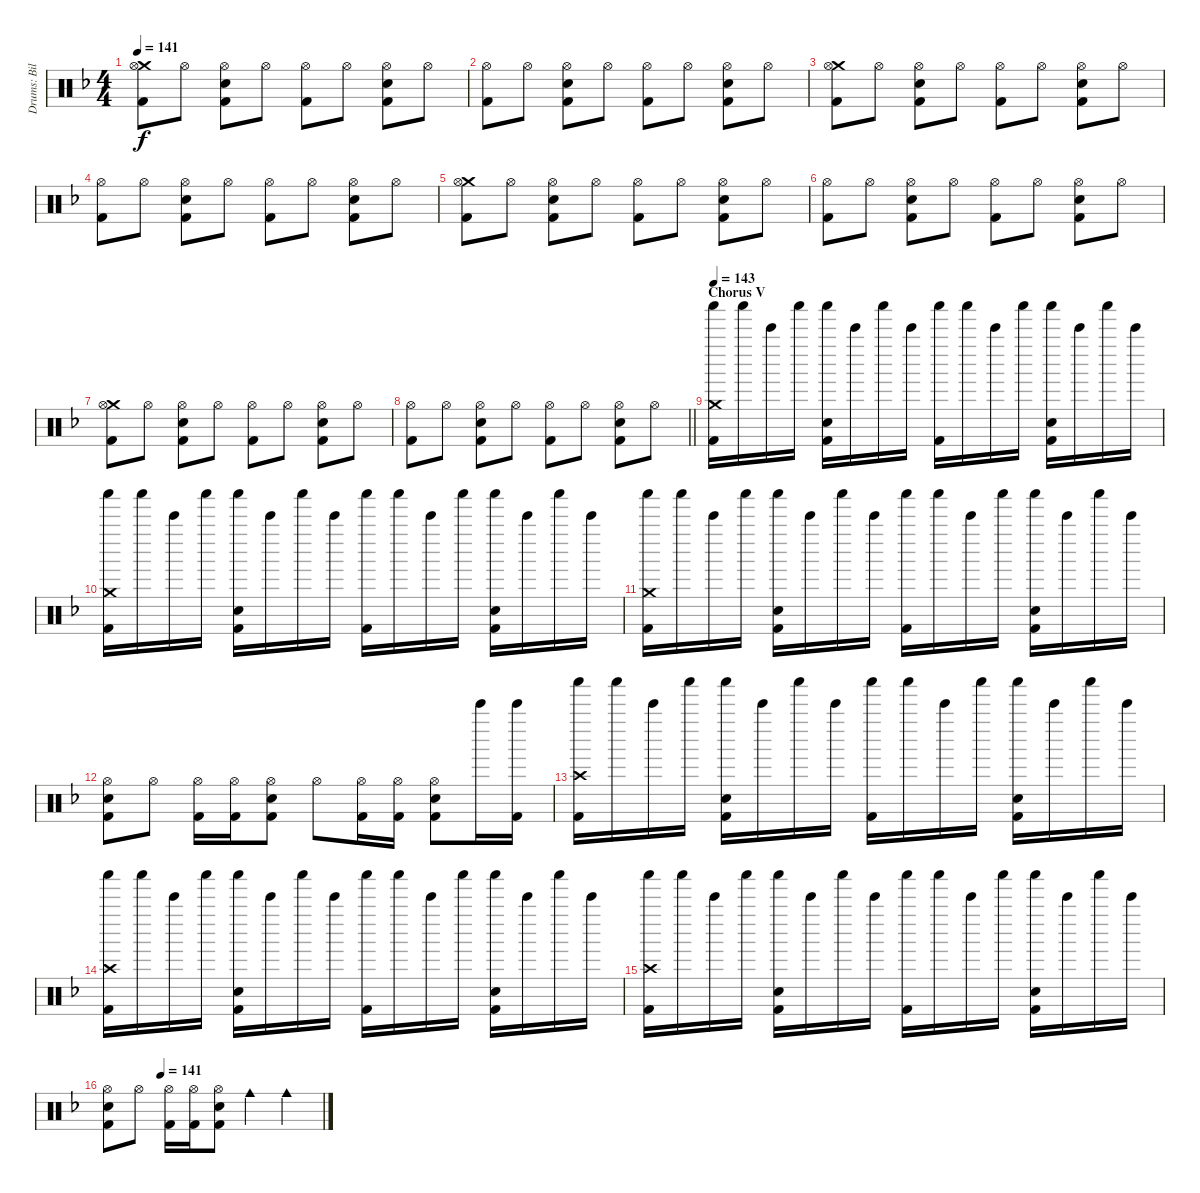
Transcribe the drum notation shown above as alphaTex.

\track ("Drums: Bill" "Drums: Bil") {instrument percussion}
\staff {score}
\articulation defaults
\ts (4 4)
\tempo 141
\clef neutral
\ks f
("Crash medium (hit)" "Hi-Hat (open)" "Kick (hit) 2").8{dy f} "Hi-Hat (open)".8 ("Hi-Hat (open)" "Snare (hit) 2" "Kick (hit) 2").8 "Hi-Hat (open)".8 ("Hi-Hat (open)" "Kick (hit) 2").8 "Hi-Hat (open)".8 ("Hi-Hat (open)" "Snare (hit) 2" "Kick (hit) 2").8 "Hi-Hat (open)".8 |
("Hi-Hat (open)" "Kick (hit) 2").8 "Hi-Hat (open)".8 ("Hi-Hat (open)" "Snare (hit) 2" "Kick (hit) 2").8 "Hi-Hat (open)".8 ("Hi-Hat (open)" "Kick (hit) 2").8 "Hi-Hat (open)".8 ("Hi-Hat (open)" "Snare (hit) 2" "Kick (hit) 2").8 "Hi-Hat (open)".8 |
("Crash medium (hit)" "Hi-Hat (open)" "Kick (hit) 2").8 "Hi-Hat (open)".8 ("Hi-Hat (open)" "Snare (hit) 2" "Kick (hit) 2").8 "Hi-Hat (open)".8 ("Hi-Hat (open)" "Kick (hit) 2").8 "Hi-Hat (open)".8 ("Hi-Hat (open)" "Snare (hit) 2" "Kick (hit) 2").8 "Hi-Hat (open)".8 |
("Hi-Hat (open)" "Kick (hit) 2").8 "Hi-Hat (open)".8 ("Hi-Hat (open)" "Snare (hit) 2" "Kick (hit) 2").8 "Hi-Hat (open)".8 ("Hi-Hat (open)" "Kick (hit) 2").8 "Hi-Hat (open)".8 ("Hi-Hat (open)" "Snare (hit) 2" "Kick (hit) 2").8 "Hi-Hat (open)".8 |
("Crash medium (hit)" "Hi-Hat (open)" "Kick (hit) 2").8 "Hi-Hat (open)".8 ("Hi-Hat (open)" "Snare (hit) 2" "Kick (hit) 2").8 "Hi-Hat (open)".8 ("Hi-Hat (open)" "Kick (hit) 2").8 "Hi-Hat (open)".8 ("Hi-Hat (open)" "Snare (hit) 2" "Kick (hit) 2").8 "Hi-Hat (open)".8 |
("Hi-Hat (open)" "Kick (hit) 2").8 "Hi-Hat (open)".8 ("Hi-Hat (open)" "Snare (hit) 2" "Kick (hit) 2").8 "Hi-Hat (open)".8 ("Hi-Hat (open)" "Kick (hit) 2").8 "Hi-Hat (open)".8 ("Hi-Hat (open)" "Snare (hit) 2" "Kick (hit) 2").8 "Hi-Hat (open)".8 |
("Crash medium (hit)" "Hi-Hat (open)" "Kick (hit) 2").8 "Hi-Hat (open)".8 ("Hi-Hat (open)" "Snare (hit) 2" "Kick (hit) 2").8 "Hi-Hat (open)".8 ("Hi-Hat (open)" "Kick (hit) 2").8 "Hi-Hat (open)".8 ("Hi-Hat (open)" "Snare (hit) 2" "Kick (hit) 2").8 "Hi-Hat (open)".8 |
\barLineRight lightlight
("Hi-Hat (open)" "Kick (hit) 2").8 "Hi-Hat (open)".8 ("Hi-Hat (open)" "Snare (hit) 2" "Kick (hit) 2").8 "Hi-Hat (open)".8 ("Hi-Hat (open)" "Kick (hit) 2").8 "Hi-Hat (open)".8 ("Hi-Hat (open)" "Snare (hit) 2" "Kick (hit) 2").8 "Hi-Hat (open)".8 |
\section ("" "Chorus V")
\tempo 143
("Crash medium (hit)" "Shaker (hit)" "Kick (hit) 2").16 "Shaker (hit)".16 "Bell Tree (hit)".16 "Shaker (hit)".16 ("Shaker (hit)" "Snare (hit) 2" "Kick (hit) 2").16 "Bell Tree (hit)".16 "Shaker (hit)".16 "Bell Tree (hit)".16 ("Shaker (hit)" "Kick (hit) 2").16 "Shaker (hit)".16 "Bell Tree (hit)".16 "Shaker (hit)".16 ("Shaker (hit)" "Snare (hit) 2" "Kick (hit) 2").16 "Bell Tree (hit)".16 "Shaker (hit)".16 "Bell Tree (hit)".16 |
("Crash medium (hit)" "Shaker (hit)" "Kick (hit) 2").16 "Shaker (hit)".16 "Bell Tree (hit)".16 "Shaker (hit)".16 ("Shaker (hit)" "Snare (hit) 2" "Kick (hit) 2").16 "Bell Tree (hit)".16 "Shaker (hit)".16 "Bell Tree (hit)".16 ("Shaker (hit)" "Kick (hit) 2").16 "Shaker (hit)".16 "Bell Tree (hit)".16 "Shaker (hit)".16 ("Shaker (hit)" "Snare (hit) 2" "Kick (hit) 2").16 "Bell Tree (hit)".16 "Shaker (hit)".16 "Bell Tree (hit)".16 |
("Crash medium (hit)" "Shaker (hit)" "Kick (hit) 2").16 "Shaker (hit)".16 "Bell Tree (hit)".16 "Shaker (hit)".16 ("Shaker (hit)" "Snare (hit) 2" "Kick (hit) 2").16 "Bell Tree (hit)".16 "Shaker (hit)".16 "Bell Tree (hit)".16 ("Shaker (hit)" "Kick (hit) 2").16 "Shaker (hit)".16 "Bell Tree (hit)".16 "Shaker (hit)".16 ("Shaker (hit)" "Snare (hit) 2" "Kick (hit) 2").16 "Bell Tree (hit)".16 "Shaker (hit)".16 "Bell Tree (hit)".16 |
("Hi-Hat (open)" "Snare (hit) 2" "Kick (hit) 2").8 "Hi-Hat (open)".8 ("Hi-Hat (open)" "Kick (hit) 2").16 ("Hi-Hat (open)" "Kick (hit) 2").16 ("Hi-Hat (open)" "Snare (hit) 2" "Kick (hit) 2").8 "Hi-Hat (open)".8 ("Hi-Hat (open)" "Kick (hit) 2").16 ("Hi-Hat (open)" "Kick (hit) 2").16 ("Hi-Hat (open)" "Snare (hit) 2" "Kick (hit) 2").8 "Bell Tree (hit)".16 ("Bell Tree (hit)" "Kick (hit) 2").16 |
("Crash high (hit)" "Shaker (hit)" "Kick (hit) 2").16 "Shaker (hit)".16 "Bell Tree (hit)".16 "Shaker (hit)".16 ("Shaker (hit)" "Snare (hit) 2" "Kick (hit) 2").16 "Bell Tree (hit)".16 "Shaker (hit)".16 "Bell Tree (hit)".16 ("Shaker (hit)" "Kick (hit) 2").16 "Shaker (hit)".16 "Bell Tree (hit)".16 "Shaker (hit)".16 ("Shaker (hit)" "Snare (hit) 2" "Kick (hit) 2").16 "Bell Tree (hit)".16 "Shaker (hit)".16 "Bell Tree (hit)".16 |
("Crash high (hit)" "Shaker (hit)" "Kick (hit) 2").16 "Shaker (hit)".16 "Bell Tree (hit)".16 "Shaker (hit)".16 ("Shaker (hit)" "Snare (hit) 2" "Kick (hit) 2").16 "Bell Tree (hit)".16 "Shaker (hit)".16 "Bell Tree (hit)".16 ("Shaker (hit)" "Kick (hit) 2").16 "Shaker (hit)".16 "Bell Tree (hit)".16 "Shaker (hit)".16 ("Shaker (hit)" "Snare (hit) 2" "Kick (hit) 2").16 "Bell Tree (hit)".16 "Shaker (hit)".16 "Bell Tree (hit)".16 |
("Crash high (hit)" "Shaker (hit)" "Kick (hit) 2").16 "Shaker (hit)".16 "Bell Tree (hit)".16 "Shaker (hit)".16 ("Shaker (hit)" "Snare (hit) 2" "Kick (hit) 2").16 "Bell Tree (hit)".16 "Shaker (hit)".16 "Bell Tree (hit)".16 ("Shaker (hit)" "Kick (hit) 2").16 "Shaker (hit)".16 "Bell Tree (hit)".16 "Shaker (hit)".16 ("Shaker (hit)" "Snare (hit) 2" "Kick (hit) 2").16 "Bell Tree (hit)".16 "Shaker (hit)".16 "Bell Tree (hit)".16 |
\tempo (141 0.25)
("Hi-Hat (open)" "Snare (hit) 2" "Kick (hit) 2").8 "Hi-Hat (open)".8 ("Hi-Hat (open)" "Kick (hit) 2").16 ("Hi-Hat (open)" "Kick (hit) 2").16 ("Hi-Hat (open)" "Snare (hit) 2" "Kick (hit) 2").8 "Cowbell medium (hit)".4 "Cowbell medium (hit)".4
